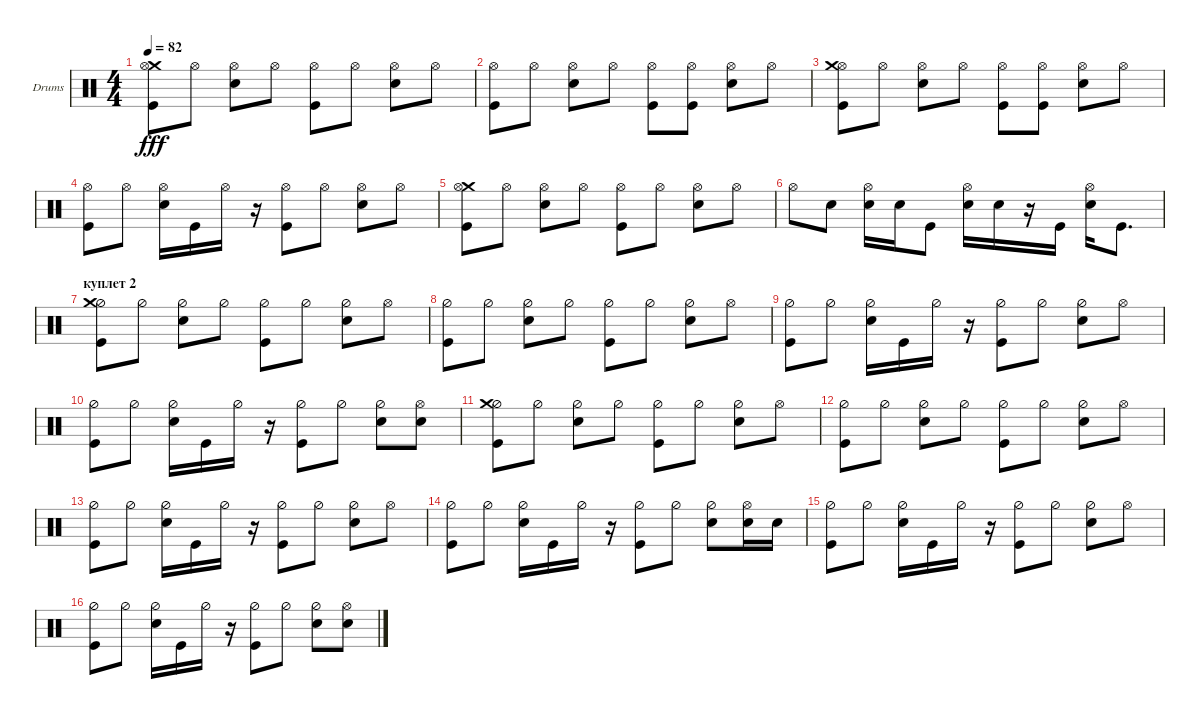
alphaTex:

\defaultSystemsLayout 4
\bracketExtendMode groupsimilarinstruments
\firstSystemTrackNameOrientation horizontal
\otherSystemsTrackNameOrientation horizontal
\track ("Drumkit" "Drums") {instrument percussion}
\staff {score}
\articulation defaults
\ts (4 4)
\tempo 82
\clef neutral
\scale
0.333333
\ks c
("Kick (hit)" "Crash medium (hit)" "Hi-Hat (open)").8{dy fff} "Hi-Hat (open)".8 ("Snare (hit) 2" "Hi-Hat (open)").8 "Hi-Hat (open)".8 ("Kick (hit)" "Hi-Hat (open)").8 "Hi-Hat (open)".8 ("Snare (hit) 2" "Hi-Hat (open)").8 "Hi-Hat (open)".8 |
\scale
0.333333 ("Kick (hit)" "Hi-Hat (open)").8 "Hi-Hat (open)".8 ("Snare (hit) 2" "Hi-Hat (open)").8 "Hi-Hat (open)".8 ("Kick (hit)" "Hi-Hat (open)").8 ("Kick (hit)" "Hi-Hat (open)").8 ("Snare (hit) 2" "Hi-Hat (open)").8 "Hi-Hat (open)".8 |
\scale
0.333333 ("Kick (hit)" "Hi-Hat (open)" "Crash medium (hit)").8 "Hi-Hat (open)".8 ("Snare (hit) 2" "Hi-Hat (open)").8 "Hi-Hat (open)".8 ("Kick (hit)" "Hi-Hat (open)").8 ("Kick (hit)" "Hi-Hat (open)").8 ("Snare (hit) 2" "Hi-Hat (open)").8 "Hi-Hat (open)".8 |
\scale
0.333333 ("Kick (hit)" "Hi-Hat (open)").8 "Hi-Hat (open)".8 ("Snare (hit) 2" "Hi-Hat (open)").16 "Kick (hit)".16 "Hi-Hat (open)".16 r.16 ("Hi-Hat (open)" "Kick (hit)").8 "Hi-Hat (open)".8 ("Hi-Hat (open)" "Snare (hit) 2").8 "Hi-Hat (open)".8 |
\scale
0.333333 ("Kick (hit)" "Crash medium (hit)" "Hi-Hat (open)").8 "Hi-Hat (open)".8 ("Snare (hit) 2" "Hi-Hat (open)").8 "Hi-Hat (open)".8 ("Kick (hit)" "Hi-Hat (open)").8 "Hi-Hat (open)".8 ("Snare (hit) 2" "Hi-Hat (open)").8 "Hi-Hat (open)".8 |
\scale
0.333333 "Hi-Hat (open)".8 "Snare (hit) 2".8 ("Snare (hit) 2" "Hi-Hat (open)").16 "Snare (hit) 2".16 "Kick (hit)".8 ("Snare (hit) 2" "Hi-Hat (open)").16 "Snare (hit) 2".16 r.16 "Kick (hit)".16 ("Snare (hit) 2" "Hi-Hat (open)").16 "Kick (hit)".8{d} |
\section ("" "куплет 2")
\scale
0.333333 ("Kick (hit)" "Hi-Hat (half)" "Crash medium (hit)").8 "Hi-Hat (half)".8 ("Snare (hit) 2" "Hi-Hat (half)").8 "Hi-Hat (half)".8 ("Kick (hit)" "Hi-Hat (half)").8 "Hi-Hat (half)".8 ("Snare (hit) 2" "Hi-Hat (half)").8 "Hi-Hat (open)".8 |
\scale
0.333333 ("Kick (hit)" "Hi-Hat (half)").8 "Hi-Hat (half)".8 ("Snare (hit) 2" "Hi-Hat (half)").8 "Hi-Hat (half)".8 ("Kick (hit)" "Hi-Hat (half)").8 "Hi-Hat (half)".8 ("Snare (hit) 2" "Hi-Hat (half)").8 "Hi-Hat (open)".8 |
\scale
0.333333 ("Kick (hit)" "Hi-Hat (half)").8 "Hi-Hat (half)".8 ("Snare (hit) 2" "Hi-Hat (half)").16 "Kick (hit)".16 "Hi-Hat (half)".16 r.16 ("Hi-Hat (half)" "Kick (hit)").8 "Hi-Hat (half)".8 ("Hi-Hat (half)" "Snare (hit) 2").8 "Hi-Hat (open)".8 |
\scale
0.333333 ("Kick (hit)" "Hi-Hat (half)").8 "Hi-Hat (half)".8 ("Snare (hit) 2" "Hi-Hat (half)").16 "Kick (hit)".16 "Hi-Hat (half)".16 r.16 ("Hi-Hat (half)" "Kick (hit)").8 "Hi-Hat (half)".8 ("Hi-Hat (half)" "Snare (hit) 2").8 ("Hi-Hat (open)" "Snare (hit) 2").8 |
\scale
0.333333 ("Kick (hit)" "Hi-Hat (half)" "Crash medium (hit)").8 "Hi-Hat (half)".8 ("Snare (hit) 2" "Hi-Hat (half)").8 "Hi-Hat (half)".8 ("Kick (hit)" "Hi-Hat (half)").8 "Hi-Hat (half)".8 ("Snare (hit) 2" "Hi-Hat (half)").8 "Hi-Hat (open)".8 |
\scale
0.333333 ("Kick (hit)" "Hi-Hat (half)").8 "Hi-Hat (half)".8 ("Snare (hit) 2" "Hi-Hat (half)").8 "Hi-Hat (half)".8 ("Kick (hit)" "Hi-Hat (half)").8 "Hi-Hat (half)".8 ("Snare (hit) 2" "Hi-Hat (half)").8 "Hi-Hat (open)".8 |
\scale
0.333333 ("Kick (hit)" "Hi-Hat (half)").8 "Hi-Hat (half)".8 ("Snare (hit) 2" "Hi-Hat (half)").16 "Kick (hit)".16 "Hi-Hat (half)".16 r.16 ("Hi-Hat (half)" "Kick (hit)").8 "Hi-Hat (half)".8 ("Hi-Hat (half)" "Snare (hit) 2").8 "Hi-Hat (open)".8 |
\scale
0.333333 ("Kick (hit)" "Hi-Hat (half)").8 "Hi-Hat (half)".8 ("Snare (hit) 2" "Hi-Hat (half)").16 "Kick (hit)".16 "Hi-Hat (half)".16 r.16 ("Hi-Hat (half)" "Kick (hit)").8 "Hi-Hat (half)".8 ("Hi-Hat (half)" "Snare (hit) 2").8 ("Hi-Hat (open)" "Snare (hit) 2").16 "Snare (hit) 2".16 |
\scale
0.333333 ("Kick (hit)" "Hi-Hat (half)").8 "Hi-Hat (half)".8 ("Snare (hit) 2" "Hi-Hat (half)").16 "Kick (hit)".16 "Hi-Hat (half)".16 r.16 ("Hi-Hat (half)" "Kick (hit)").8 "Hi-Hat (half)".8 ("Hi-Hat (half)" "Snare (hit) 2").8 "Hi-Hat (open)".8 |
\scale
0.333333 ("Kick (hit)" "Hi-Hat (half)").8 "Hi-Hat (half)".8 ("Snare (hit) 2" "Hi-Hat (half)").16 "Kick (hit)".16 "Hi-Hat (half)".16 r.16 ("Hi-Hat (half)" "Kick (hit)").8 "Hi-Hat (half)".8 ("Hi-Hat (half)" "Snare (hit) 2").8 ("Hi-Hat (open)" "Snare (hit) 2").8
